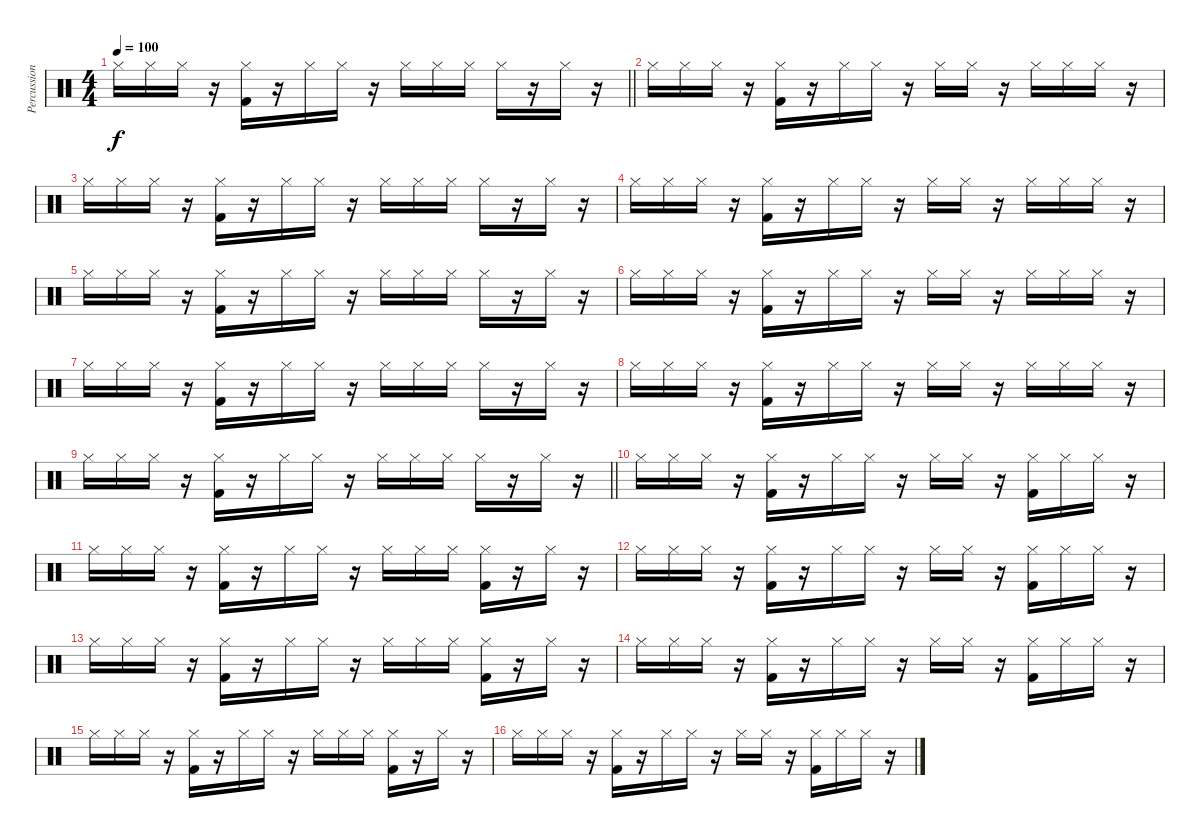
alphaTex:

\track ("Percussion" "Percussion") {instrument percussion}
\staff {score}
\articulation defaults
\ts (4 4)
\tempo 100
\clef neutral
\barLineRight lightlight
\ks c "Hi-Hat (closed)".16{dy f} "Hi-Hat (closed)".16 "Hi-Hat (closed)".16
r.16 ("Hi-Hat (closed)" "Kick (hit) 2").16 r.16 "Hi-Hat (closed)".16 "Hi-Hat (closed)".16 r.16 "Hi-Hat (closed)".16 "Hi-Hat (closed)".16 "Hi-Hat (closed)".16 "Hi-Hat (closed)".16 r.16 "Hi-Hat (closed)".16 r.16 |
"Hi-Hat (closed)".16 "Hi-Hat (closed)".16 "Hi-Hat (closed)".16 r.16 ("Hi-Hat (closed)" "Kick (hit) 2").16 r.16 "Hi-Hat (closed)".16 "Hi-Hat (closed)".16 r.16 "Hi-Hat (closed)".16 "Hi-Hat (closed)".16 r.16 "Hi-Hat (closed)".16 "Hi-Hat (closed)".16 "Hi-Hat (closed)".16 r.16 |
"Hi-Hat (closed)".16 "Hi-Hat (closed)".16 "Hi-Hat (closed)".16 r.16 ("Hi-Hat (closed)" "Kick (hit) 2").16 r.16 "Hi-Hat (closed)".16 "Hi-Hat (closed)".16 r.16 "Hi-Hat (closed)".16 "Hi-Hat (closed)".16 "Hi-Hat (closed)".16 "Hi-Hat (closed)".16 r.16 "Hi-Hat (closed)".16 r.16 |
"Hi-Hat (closed)".16 "Hi-Hat (closed)".16 "Hi-Hat (closed)".16 r.16 ("Hi-Hat (closed)" "Kick (hit) 2").16 r.16 "Hi-Hat (closed)".16 "Hi-Hat (closed)".16 r.16 "Hi-Hat (closed)".16 "Hi-Hat (closed)".16 r.16 "Hi-Hat (closed)".16 "Hi-Hat (closed)".16 "Hi-Hat (closed)".16 r.16 |
"Hi-Hat (closed)".16 "Hi-Hat (closed)".16 "Hi-Hat (closed)".16 r.16 ("Hi-Hat (closed)" "Kick (hit) 2").16 r.16 "Hi-Hat (closed)".16 "Hi-Hat (closed)".16 r.16 "Hi-Hat (closed)".16 "Hi-Hat (closed)".16 "Hi-Hat (closed)".16 "Hi-Hat (closed)".16 r.16 "Hi-Hat (closed)".16 r.16 |
"Hi-Hat (closed)".16 "Hi-Hat (closed)".16 "Hi-Hat (closed)".16 r.16 ("Hi-Hat (closed)" "Kick (hit) 2").16 r.16 "Hi-Hat (closed)".16 "Hi-Hat (closed)".16 r.16 "Hi-Hat (closed)".16 "Hi-Hat (closed)".16 r.16 "Hi-Hat (closed)".16 "Hi-Hat (closed)".16 "Hi-Hat (closed)".16 r.16 |
"Hi-Hat (closed)".16 "Hi-Hat (closed)".16 "Hi-Hat (closed)".16 r.16 ("Hi-Hat (closed)" "Kick (hit) 2").16 r.16 "Hi-Hat (closed)".16 "Hi-Hat (closed)".16 r.16 "Hi-Hat (closed)".16 "Hi-Hat (closed)".16 "Hi-Hat (closed)".16 "Hi-Hat (closed)".16 r.16 "Hi-Hat (closed)".16 r.16 |
"Hi-Hat (closed)".16 "Hi-Hat (closed)".16 "Hi-Hat (closed)".16 r.16 ("Hi-Hat (closed)" "Kick (hit) 2").16 r.16 "Hi-Hat (closed)".16 "Hi-Hat (closed)".16 r.16 "Hi-Hat (closed)".16 "Hi-Hat (closed)".16 r.16 "Hi-Hat (closed)".16 "Hi-Hat (closed)".16 "Hi-Hat (closed)".16 r.16 |
\barLineRight lightlight "Hi-Hat (closed)".16 "Hi-Hat (closed)".16 "Hi-Hat (closed)".16
r.16 ("Hi-Hat (closed)" "Kick (hit) 2").16 r.16 "Hi-Hat (closed)".16 "Hi-Hat (closed)".16 r.16 "Hi-Hat (closed)".16 "Hi-Hat (closed)".16 "Hi-Hat (closed)".16 "Hi-Hat (closed)".16 r.16 "Hi-Hat (closed)".16 r.16 |
"Hi-Hat (closed)".16 "Hi-Hat (closed)".16 "Hi-Hat (closed)".16 r.16 ("Hi-Hat (closed)" "Kick (hit) 2").16 r.16 "Hi-Hat (closed)".16 "Hi-Hat (closed)".16 r.16 "Hi-Hat (closed)".16 "Hi-Hat (closed)".16 r.16 ("Hi-Hat (closed)" "Kick (hit) 2").16 "Hi-Hat (closed)".16 "Hi-Hat (closed)".16 r.16 |
"Hi-Hat (closed)".16 "Hi-Hat (closed)".16 "Hi-Hat (closed)".16 r.16 ("Hi-Hat (closed)" "Kick (hit) 2").16 r.16 "Hi-Hat (closed)".16 "Hi-Hat (closed)".16 r.16 "Hi-Hat (closed)".16 "Hi-Hat (closed)".16 "Hi-Hat (closed)".16 ("Hi-Hat (closed)" "Kick (hit) 2").16 r.16 "Hi-Hat (closed)".16 r.16 |
"Hi-Hat (closed)".16 "Hi-Hat (closed)".16 "Hi-Hat (closed)".16 r.16 ("Hi-Hat (closed)" "Kick (hit) 2").16 r.16 "Hi-Hat (closed)".16 "Hi-Hat (closed)".16 r.16 "Hi-Hat (closed)".16 "Hi-Hat (closed)".16 r.16 ("Hi-Hat (closed)" "Kick (hit) 2").16 "Hi-Hat (closed)".16 "Hi-Hat (closed)".16 r.16 |
"Hi-Hat (closed)".16 "Hi-Hat (closed)".16 "Hi-Hat (closed)".16 r.16 ("Hi-Hat (closed)" "Kick (hit) 2").16 r.16 "Hi-Hat (closed)".16 "Hi-Hat (closed)".16 r.16 "Hi-Hat (closed)".16 "Hi-Hat (closed)".16 "Hi-Hat (closed)".16 ("Hi-Hat (closed)" "Kick (hit) 2").16 r.16 "Hi-Hat (closed)".16 r.16 |
"Hi-Hat (closed)".16 "Hi-Hat (closed)".16 "Hi-Hat (closed)".16 r.16 ("Hi-Hat (closed)" "Kick (hit) 2").16 r.16 "Hi-Hat (closed)".16 "Hi-Hat (closed)".16 r.16 "Hi-Hat (closed)".16 "Hi-Hat (closed)".16 r.16 ("Hi-Hat (closed)" "Kick (hit) 2").16 "Hi-Hat (closed)".16 "Hi-Hat (closed)".16 r.16 |
"Hi-Hat (closed)".16 "Hi-Hat (closed)".16 "Hi-Hat (closed)".16 r.16 ("Hi-Hat (closed)" "Kick (hit) 2").16 r.16 "Hi-Hat (closed)".16 "Hi-Hat (closed)".16 r.16 "Hi-Hat (closed)".16 "Hi-Hat (closed)".16 "Hi-Hat (closed)".16 ("Hi-Hat (closed)" "Kick (hit) 2").16 r.16 "Hi-Hat (closed)".16 r.16 |
"Hi-Hat (closed)".16 "Hi-Hat (closed)".16 "Hi-Hat (closed)".16 r.16 ("Hi-Hat (closed)" "Kick (hit) 2").16 r.16 "Hi-Hat (closed)".16 "Hi-Hat (closed)".16 r.16 "Hi-Hat (closed)".16 "Hi-Hat (closed)".16 r.16 ("Hi-Hat (closed)" "Kick (hit) 2").16 "Hi-Hat (closed)".16 "Hi-Hat (closed)".16 r.16
